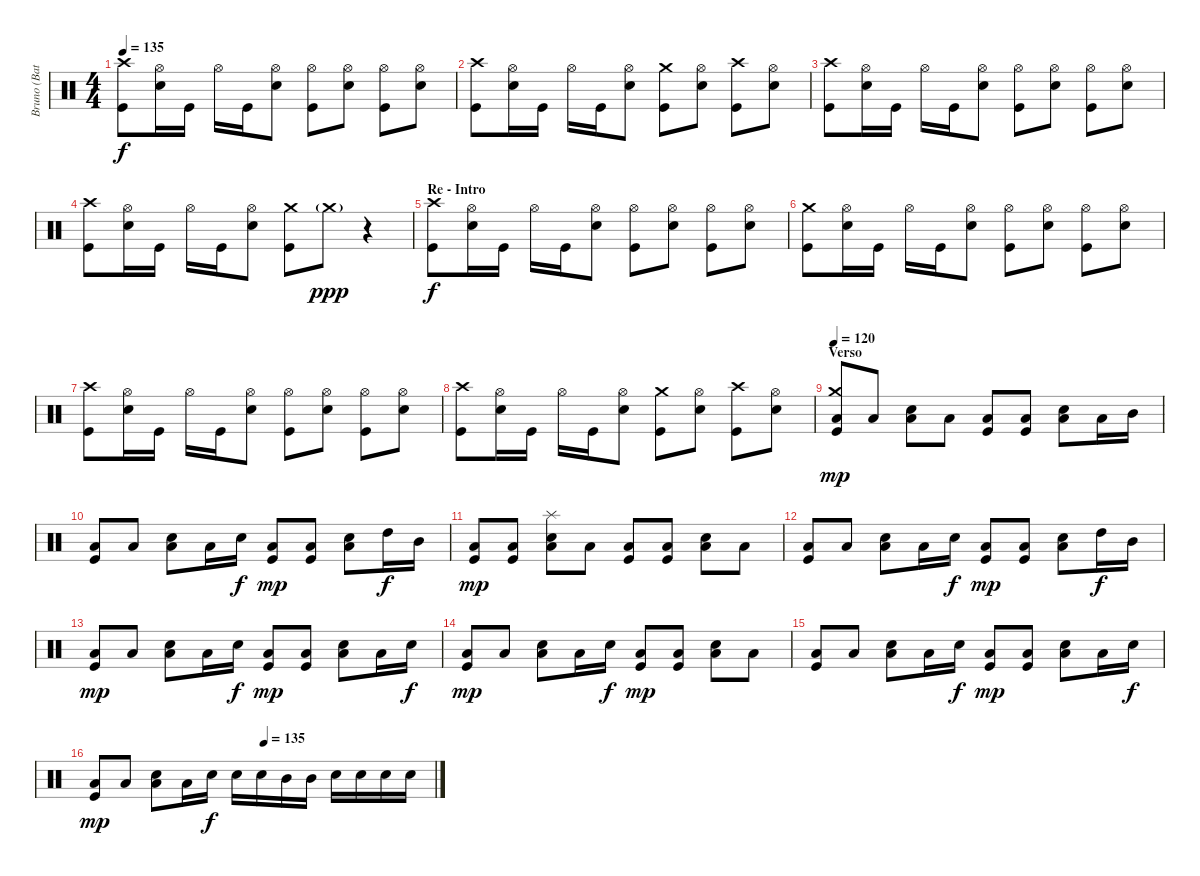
\track ("Bruno (Bateria)" "Bruno (Bat") {instrument percussion}
\staff {score}
\articulation defaults
\ts (4 4)
\tempo 135
\clef neutral
\ks c
("Crash high (hit)" "Kick (hit)").8{dy f} ("Hi-Hat (open)" "Electric Snare (hit)").16 "Kick (hit)".16 "Hi-Hat (open)".16 "Kick (hit)".16 ("Hi-Hat (open)" "Electric Snare (hit)").8 ("Hi-Hat (open)" "Kick (hit)").8 ("Hi-Hat (open)" "Electric Snare (hit)").8 ("Hi-Hat (open)" "Kick (hit)").8 ("Hi-Hat (open)" "Electric Snare (hit)").8 |
("Crash high (hit)" "Kick (hit)").8 ("Hi-Hat (open)" "Electric Snare (hit)").16 "Kick (hit)".16 "Hi-Hat (open)".16 "Kick (hit)".16 ("Hi-Hat (open)" "Electric Snare (hit)").8 ("Crash medium (hit)" "Kick (hit)").8 ("Hi-Hat (open)" "Electric Snare (hit)").8 ("Crash high (hit)" "Kick (hit)").8 ("Hi-Hat (open)" "Electric Snare (hit)").8 |
("Crash high (hit)" "Kick (hit)").8 ("Hi-Hat (open)" "Electric Snare (hit)").16 "Kick (hit)".16 "Hi-Hat (open)".16 "Kick (hit)".16 ("Hi-Hat (open)" "Electric Snare (hit)").8 ("Hi-Hat (open)" "Kick (hit)").8 ("Hi-Hat (open)" "Electric Snare (hit)").8 ("Hi-Hat (open)" "Kick (hit)").8 ("Hi-Hat (open)" "Electric Snare (hit)").8 |
("Crash high (hit)" "Kick (hit)").8 ("Hi-Hat (open)" "Electric Snare (hit)").16 "Kick (hit)".16 "Hi-Hat (open)".16 "Kick (hit)".16 ("Hi-Hat (open)" "Electric Snare (hit)").8 ("Crash medium (hit)" "Kick (hit)").8 "Crash medium (hit)"{g}.8{dy ppp} r.4 |
\section ("" "Re - Intro")
("Crash high (hit)" "Kick (hit)").8{dy f} ("Hi-Hat (open)" "Electric Snare (hit)").16 "Kick (hit)".16 "Hi-Hat (open)".16 "Kick (hit)".16 ("Hi-Hat (open)" "Electric Snare (hit)").8 ("Hi-Hat (open)" "Kick (hit)").8 ("Hi-Hat (open)" "Electric Snare (hit)").8 ("Hi-Hat (open)" "Kick (hit)").8 ("Hi-Hat (open)" "Electric Snare (hit)").8 |
("Crash medium (hit)" "Kick (hit)").8 ("Hi-Hat (open)" "Electric Snare (hit)").16 "Kick (hit)".16 "Hi-Hat (open)".16 "Kick (hit)".16 ("Hi-Hat (open)" "Electric Snare (hit)").8 ("Hi-Hat (open)" "Kick (hit)").8 ("Hi-Hat (open)" "Electric Snare (hit)").8 ("Hi-Hat (open)" "Kick (hit)").8 ("Hi-Hat (open)" "Electric Snare (hit)").8 |
("Crash high (hit)" "Kick (hit)").8 ("Hi-Hat (open)" "Electric Snare (hit)").16 "Kick (hit)".16 "Hi-Hat (open)".16 "Kick (hit)".16 ("Hi-Hat (open)" "Electric Snare (hit)").8 ("Hi-Hat (open)" "Kick (hit)").8 ("Hi-Hat (open)" "Electric Snare (hit)").8 ("Hi-Hat (open)" "Kick (hit)").8 ("Hi-Hat (open)" "Electric Snare (hit)").8 |
("Crash high (hit)" "Kick (hit)").8 ("Hi-Hat (open)" "Electric Snare (hit)").16 "Kick (hit)".16 "Hi-Hat (open)".16 "Kick (hit)".16 ("Hi-Hat (open)" "Electric Snare (hit)").8 ("Crash medium (hit)" "Kick (hit)").8 ("Hi-Hat (open)" "Electric Snare (hit)").8 ("Crash high (hit)" "Kick (hit)").8 ("Hi-Hat (open)" "Electric Snare (hit)").8 |
\section ("" "Verso")
\tempo 120
("Crash medium (hit)" "Low Tom (hit)" "Kick (hit)").8{dy mp} "Low Tom (hit)".8 ("Electric Snare (hit)" "Low Tom (hit)").8 "Low Tom (hit)".8 ("Low Tom (hit)" "Kick (hit)").8 ("Low Tom (hit)" "Kick (hit)").8 ("Electric Snare (hit)" "Low Tom (hit)").8 "Low Tom (hit)".16 "Mid Tom (hit)".16 |
("Low Tom (hit)" "Kick (hit)").8 "Low Tom (hit)".8 ("Electric Snare (hit)" "Low Tom (hit)").8 "Low Tom (hit)".16 "Electric Snare (hit)".16{dy f} ("Low Tom (hit)" "Kick (hit)").8{dy mp} ("Low Tom (hit)" "Kick (hit)").8 ("Electric Snare (hit)" "Low Tom (hit)").8 "High Tom (hit)".16{dy f} "Mid Tom (hit)".16 |
("Low Tom (hit)" "Kick (hit)").8{dy mp} ("Low Tom (hit)" "Kick (hit)").8 ("Splash (hit)" "Electric Snare (hit)" "Low Tom (hit)").8 "Low Tom (hit)".8 ("Low Tom (hit)" "Kick (hit)").8 ("Low Tom (hit)" "Kick (hit)").8 ("Electric Snare (hit)" "Low Tom (hit)").8 "Low Tom (hit)".8 |
("Low Tom (hit)" "Kick (hit)").8 "Low Tom (hit)".8 ("Electric Snare (hit)" "Low Tom (hit)").8 "Low Tom (hit)".16 "Electric Snare (hit)".16{dy f} ("Low Tom (hit)" "Kick (hit)").8{dy mp} ("Low Tom (hit)" "Kick (hit)").8 ("Electric Snare (hit)" "Low Tom (hit)").8 "High Tom (hit)".16{dy f} "Mid Tom (hit)".16 |
("Low Tom (hit)" "Kick (hit)").8{dy mp} "Low Tom (hit)".8 ("Electric Snare (hit)" "Low Tom (hit)").8 "Low Tom (hit)".16 "Electric Snare (hit)".16{dy f} ("Low Tom (hit)" "Kick (hit)").8{dy mp} ("Low Tom (hit)" "Kick (hit)").8 ("Electric Snare (hit)" "Low Tom (hit)").8 "Low Tom (hit)".16 "Electric Snare (hit)".16{dy f} |
("Low Tom (hit)" "Kick (hit)").8{dy mp} "Low Tom (hit)".8 ("Electric Snare (hit)" "Low Tom (hit)").8 "Low Tom (hit)".16 "Electric Snare (hit)".16{dy f} ("Low Tom (hit)" "Kick (hit)").8{dy mp} ("Low Tom (hit)" "Kick (hit)").8 ("Electric Snare (hit)" "Low Tom (hit)").8 "Low Tom (hit)".8 |
("Low Tom (hit)" "Kick (hit)").8 "Low Tom (hit)".8 ("Electric Snare (hit)" "Low Tom (hit)").8 "Low Tom (hit)".16 "Electric Snare (hit)".16{dy f} ("Low Tom (hit)" "Kick (hit)").8{dy mp} ("Low Tom (hit)" "Kick (hit)").8 ("Electric Snare (hit)" "Low Tom (hit)").8 "Low Tom (hit)".16 "Electric Snare (hit)".16{dy f} |
\tempo (135 0.5)
("Low Tom (hit)" "Kick (hit)").8{dy mp} "Low Tom (hit)".8 ("Electric Snare (hit)" "Low Tom (hit)").8 "Low Tom (hit)".16 "Electric Snare (hit)".16{dy f} "Electric Snare (hit)".16 "Electric Snare (hit)".16 "Mid Tom (hit)".16 "Mid Tom (hit)".16 "Electric Snare (hit)".16 "Electric Snare (hit)".16 "Electric Snare (hit)".16 "Electric Snare (hit)".16
